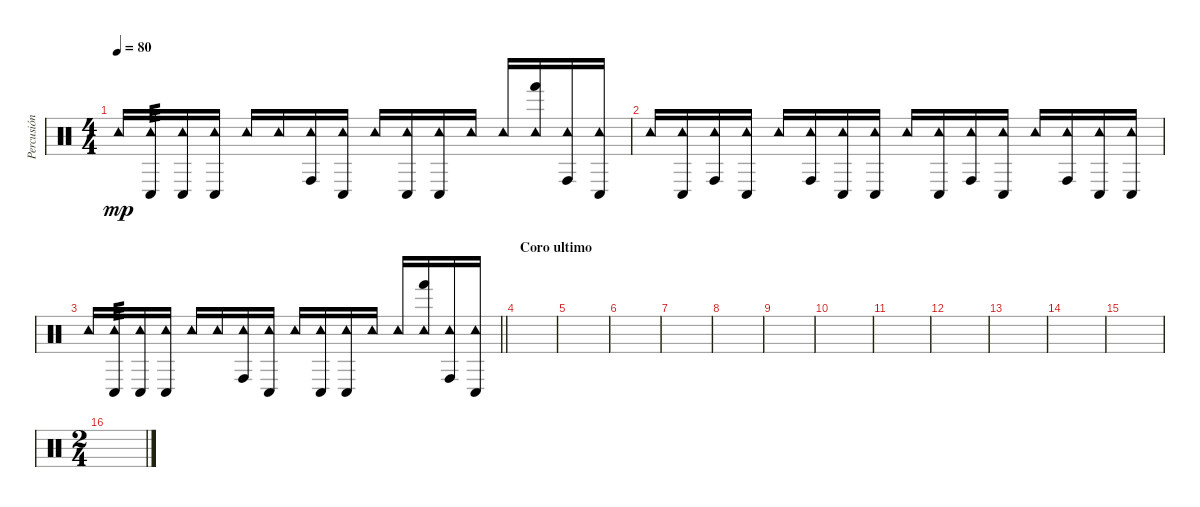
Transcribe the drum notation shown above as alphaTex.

\track ("Percusión" "Percusión") {instrument percussion}
\staff {score}
\articulation defaults
\ts (4 4)
\tempo 80
\clef neutral
\ks c "Tambourine (hit)".16{dy mp}
("Tambourine (hit)" "Conga low (hit)").16{tp 3} ("Tambourine (hit)" "Conga low (hit)").16 ("Tambourine (hit)" "Conga low (hit)").16 "Tambourine (hit)".16 "Tambourine (hit)".16 ("Tambourine (hit)" "Conga high (hit)").16 ("Tambourine (hit)" "Conga low (hit)").16 "Tambourine (hit)".16 ("Tambourine (hit)" "Conga low (hit)").16 ("Tambourine (hit)" "Conga low (hit)").16 "Tambourine (hit)".16 "Tambourine (hit)".16 ("Tambourine (hit)" "Hand (hit)").16 ("Tambourine (hit)" "Conga high (hit)").16 ("Tambourine (hit)" "Conga low (hit)").16 |
"Tambourine (hit)".16 ("Tambourine (hit)" "Conga low (hit)").16 ("Tambourine (hit)" "Conga high (hit)").16 ("Tambourine (hit)" "Conga low (hit)").16 "Tambourine (hit)".16 ("Tambourine (hit)" "Conga high (hit)").16 ("Tambourine (hit)" "Conga low (hit)").16 ("Tambourine (hit)" "Conga low (hit)").16 "Tambourine (hit)".16 ("Tambourine (hit)" "Conga low (hit)").16 ("Tambourine (hit)" "Conga high (hit)").16 ("Tambourine (hit)" "Conga low (hit)").16 "Tambourine (hit)".16 ("Tambourine (hit)" "Conga high (hit)").16 ("Tambourine (hit)" "Conga low (hit)").16 ("Tambourine (hit)" "Conga low (hit)").16 |
\barLineRight lightlight "Tambourine (hit)".16
("Tambourine (hit)" "Conga low (hit)").16{tp 3} ("Tambourine (hit)" "Conga low (hit)").16 ("Tambourine (hit)" "Conga low (hit)").16 "Tambourine (hit)".16 "Tambourine (hit)".16 ("Tambourine (hit)" "Conga high (hit)").16 ("Tambourine (hit)" "Conga low (hit)").16 "Tambourine (hit)".16 ("Tambourine (hit)" "Conga low (hit)").16 ("Tambourine (hit)" "Conga low (hit)").16 "Tambourine (hit)".16 "Tambourine (hit)".16 ("Tambourine (hit)" "Hand (hit)").16 ("Tambourine (hit)" "Conga high (hit)").16 ("Tambourine (hit)" "Conga low (hit)").16 |
\section ("" "Coro ultimo")
|
|
|
|
|
|
|
|
|
|
|
|
\ts (2 4)
